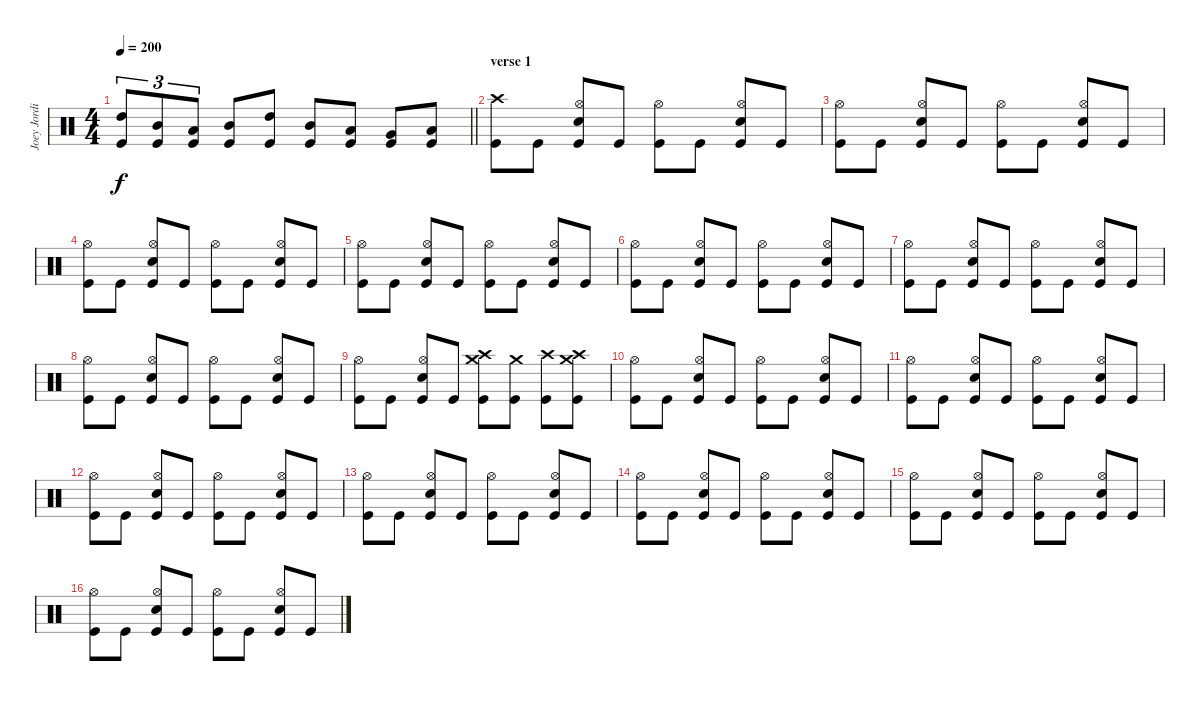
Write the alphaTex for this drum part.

\track ("Joey Jordison" "Joey Jordi") {instrument percussion}
\staff {score}
\articulation defaults
\ts (4 4)
\tempo 200
\clef neutral
\barLineRight lightlight
\ks c
("High Tom (hit)" "Kick (hit)").8{tu (3 2) dy f} ("Mid Tom (hit)" "Kick (hit)").8{tu (3 2)} ("Low Tom (hit)" "Kick (hit)").8{tu (3 2)} ("Mid Tom (hit)" "Kick (hit)").8 ("High Tom (hit)" "Kick (hit)").8 ("Mid Tom (hit)" "Kick (hit)").8 ("Low Tom (hit)" "Kick (hit)").8 ("Very Low Tom (hit)" "Kick (hit)").8 ("Low Tom (hit)" "Kick (hit)").8 |
\section ("" "verse 1")
("Crash high (hit)" "Kick (hit)").8 "Kick (hit)".8 ("Hi-Hat (open)" "Electric Snare (hit)" "Kick (hit)").8 "Kick (hit)".8 ("Hi-Hat (open)" "Kick (hit)").8 "Kick (hit)".8 ("Hi-Hat (open)" "Electric Snare (hit)" "Kick (hit)").8 "Kick (hit)".8 |
("Hi-Hat (open)" "Kick (hit)").8 "Kick (hit)".8 ("Hi-Hat (open)" "Electric Snare (hit)" "Kick (hit)").8 "Kick (hit)".8 ("Hi-Hat (open)" "Kick (hit)").8 "Kick (hit)".8 ("Hi-Hat (open)" "Electric Snare (hit)" "Kick (hit)").8 "Kick (hit)".8 |
("Hi-Hat (open)" "Kick (hit)").8 "Kick (hit)".8 ("Hi-Hat (open)" "Electric Snare (hit)" "Kick (hit)").8 "Kick (hit)".8 ("Hi-Hat (open)" "Kick (hit)").8 "Kick (hit)".8 ("Hi-Hat (open)" "Electric Snare (hit)" "Kick (hit)").8 "Kick (hit)".8 |
("Hi-Hat (open)" "Kick (hit)").8 "Kick (hit)".8 ("Hi-Hat (open)" "Electric Snare (hit)" "Kick (hit)").8 "Kick (hit)".8 ("Hi-Hat (open)" "Kick (hit)").8 "Kick (hit)".8 ("Hi-Hat (open)" "Electric Snare (hit)" "Kick (hit)").8 "Kick (hit)".8 |
("Hi-Hat (open)" "Kick (hit)").8 "Kick (hit)".8 ("Hi-Hat (open)" "Electric Snare (hit)" "Kick (hit)").8 "Kick (hit)".8 ("Hi-Hat (open)" "Kick (hit)").8 "Kick (hit)".8 ("Hi-Hat (open)" "Electric Snare (hit)" "Kick (hit)").8 "Kick (hit)".8 |
("Hi-Hat (open)" "Kick (hit)").8 "Kick (hit)".8 ("Hi-Hat (open)" "Electric Snare (hit)" "Kick (hit)").8 "Kick (hit)".8 ("Hi-Hat (open)" "Kick (hit)").8 "Kick (hit)".8 ("Hi-Hat (open)" "Electric Snare (hit)" "Kick (hit)").8 "Kick (hit)".8 |
("Hi-Hat (open)" "Kick (hit)").8 "Kick (hit)".8 ("Hi-Hat (open)" "Electric Snare (hit)" "Kick (hit)").8 "Kick (hit)".8 ("Hi-Hat (open)" "Kick (hit)").8 "Kick (hit)".8 ("Hi-Hat (open)" "Electric Snare (hit)" "Kick (hit)").8 "Kick (hit)".8 |
("Hi-Hat (open)" "Kick (hit)").8 "Kick (hit)".8 ("Hi-Hat (open)" "Electric Snare (hit)" "Kick (hit)").8 "Kick (hit)".8 ("Crash medium (hit)" "Crash high (hit)" "Kick (hit)").8 ("Crash medium (hit)" "Kick (hit)").8 ("Crash high (hit)" "Kick (hit)").8 ("Crash high (hit)" "Crash medium (hit)" "Kick (hit)").8 |
("Hi-Hat (open)" "Kick (hit)").8 "Kick (hit)".8 ("Hi-Hat (open)" "Electric Snare (hit)" "Kick (hit)").8 "Kick (hit)".8 ("Hi-Hat (open)" "Kick (hit)").8 "Kick (hit)".8 ("Hi-Hat (open)" "Electric Snare (hit)" "Kick (hit)").8 "Kick (hit)".8 |
("Hi-Hat (open)" "Kick (hit)").8 "Kick (hit)".8 ("Hi-Hat (open)" "Electric Snare (hit)" "Kick (hit)").8 "Kick (hit)".8 ("Hi-Hat (open)" "Kick (hit)").8 "Kick (hit)".8 ("Hi-Hat (open)" "Electric Snare (hit)" "Kick (hit)").8 "Kick (hit)".8 |
("Hi-Hat (open)" "Kick (hit)").8 "Kick (hit)".8 ("Hi-Hat (open)" "Electric Snare (hit)" "Kick (hit)").8 "Kick (hit)".8 ("Hi-Hat (open)" "Kick (hit)").8 "Kick (hit)".8 ("Hi-Hat (open)" "Electric Snare (hit)" "Kick (hit)").8 "Kick (hit)".8 |
("Hi-Hat (open)" "Kick (hit)").8 "Kick (hit)".8 ("Hi-Hat (open)" "Electric Snare (hit)" "Kick (hit)").8 "Kick (hit)".8 ("Hi-Hat (open)" "Kick (hit)").8 "Kick (hit)".8 ("Hi-Hat (open)" "Electric Snare (hit)" "Kick (hit)").8 "Kick (hit)".8 |
("Hi-Hat (open)" "Kick (hit)").8 "Kick (hit)".8 ("Hi-Hat (open)" "Electric Snare (hit)" "Kick (hit)").8 "Kick (hit)".8 ("Hi-Hat (open)" "Kick (hit)").8 "Kick (hit)".8 ("Hi-Hat (open)" "Electric Snare (hit)" "Kick (hit)").8 "Kick (hit)".8 |
("Hi-Hat (open)" "Kick (hit)").8 "Kick (hit)".8 ("Hi-Hat (open)" "Electric Snare (hit)" "Kick (hit)").8 "Kick (hit)".8 ("Hi-Hat (open)" "Kick (hit)").8 "Kick (hit)".8 ("Hi-Hat (open)" "Electric Snare (hit)" "Kick (hit)").8 "Kick (hit)".8 |
("Hi-Hat (open)" "Kick (hit)").8 "Kick (hit)".8 ("Hi-Hat (open)" "Electric Snare (hit)" "Kick (hit)").8 "Kick (hit)".8 ("Hi-Hat (open)" "Kick (hit)").8 "Kick (hit)".8 ("Hi-Hat (open)" "Electric Snare (hit)" "Kick (hit)").8 "Kick (hit)".8
